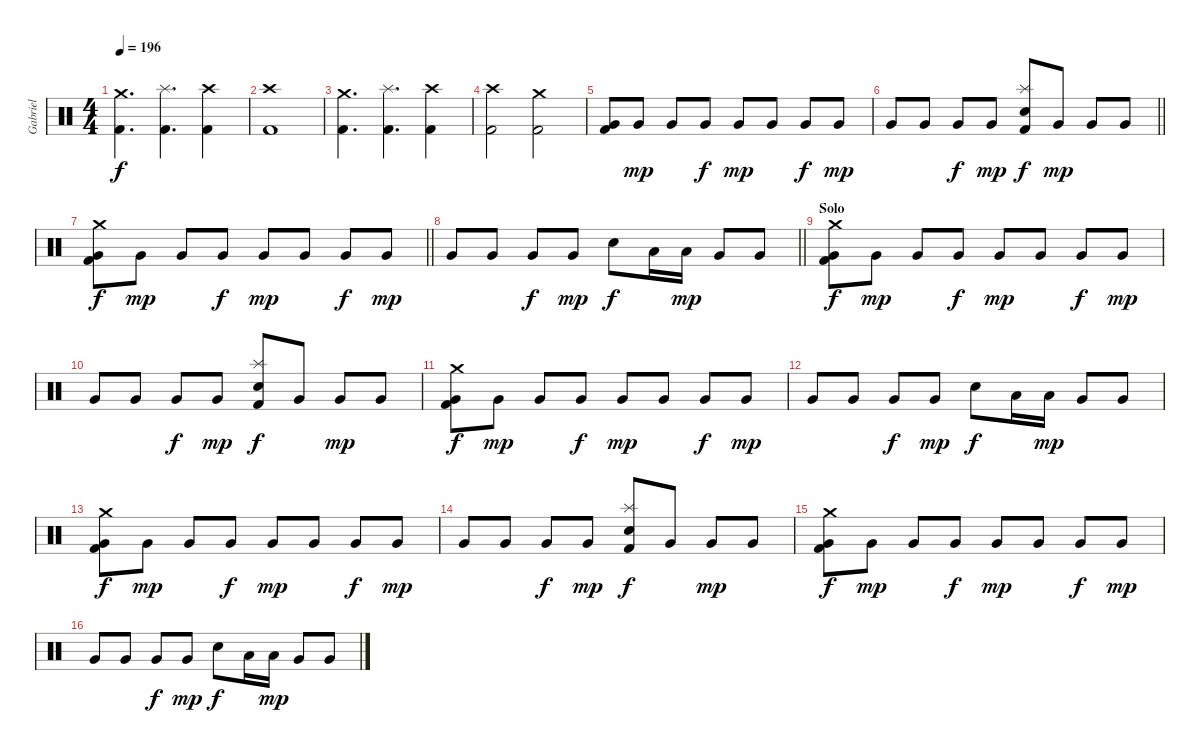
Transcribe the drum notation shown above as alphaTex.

\track ("Gabriel" "Gabriel") {instrument percussion}
\staff {score}
\articulation defaults
\ts (4 4)
\tempo 196
\clef neutral
\ks c
("Crash medium (hit)" "Kick (hit) 2").4{d dy f} ("Splash (hit)" "Kick (hit) 2").4{d} ("Crash high (hit)" "Kick (hit) 2").4 |
("Crash high (hit)" "Kick (hit) 2").1 |
("Crash medium (hit)" "Kick (hit) 2").4{d} ("Splash (hit)" "Kick (hit) 2").4{d} ("Crash high (hit)" "Kick (hit) 2").4 |
("Crash high (hit)" "Kick (hit) 2").2 ("Crash medium (hit)" "Kick (hit) 2").2 |
("Very Low Tom (hit)" "Kick (hit) 2").8 "Very Low Tom (hit)".8{dy mp} "Very Low Tom (hit)".8 "Very Low Tom (hit)".8{dy f} "Very Low Tom (hit)".8{dy mp} "Very Low Tom (hit)".8 "Very Low Tom (hit)".8{dy f} "Very Low Tom (hit)".8{dy mp} |
\barLineRight lightlight "Very Low Tom (hit)".8 "Very Low Tom (hit)".8 "Very Low Tom (hit)".8{dy f} "Very Low Tom (hit)".8{dy mp}
("Splash (hit)" "Electric Snare (hit)" "Kick (hit) 2").8{dy f} "Very Low Tom (hit)".8{dy mp} "Very Low Tom (hit)".8 "Very Low Tom (hit)".8 |
\barLineRight lightlight
("Crash medium (hit)" "Very Low Tom (hit)" "Kick (hit) 2").8{dy f} "Very Low Tom (hit)".8{dy mp} "Very Low Tom (hit)".8 "Very Low Tom (hit)".8{dy f} "Very Low Tom (hit)".8{dy mp} "Very Low Tom (hit)".8 "Very Low Tom (hit)".8{dy f} "Very Low Tom (hit)".8{dy mp} |
\barLineRight lightlight "Very Low Tom (hit)".8 "Very Low Tom (hit)".8 "Very Low Tom (hit)".8{dy f} "Very Low Tom (hit)".8{dy mp} "Electric Snare (hit)".8{dy f} "Low Tom (hit)".16 "Low Tom (hit)".16{dy mp} "Very Low Tom (hit)".8 "Very Low Tom (hit)".8
|
\section ("" "Solo")
("Crash medium (hit)" "Very Low Tom (hit)" "Kick (hit) 2").8{dy f} "Very Low Tom (hit)".8{dy mp} "Very Low Tom (hit)".8 "Very Low Tom (hit)".8{dy f} "Very Low Tom (hit)".8{dy mp} "Very Low Tom (hit)".8 "Very Low Tom (hit)".8{dy f} "Very Low Tom (hit)".8{dy mp} |
"Very Low Tom (hit)".8 "Very Low Tom (hit)".8 "Very Low Tom (hit)".8{dy f} "Very Low Tom (hit)".8{dy mp} ("Splash (hit)" "Electric Snare (hit)" "Kick (hit) 2").8{dy f} "Very Low Tom (hit)".8 "Very Low Tom (hit)".8{dy mp} "Very Low Tom (hit)".8 |
("Crash medium (hit)" "Very Low Tom (hit)" "Kick (hit) 2").8{dy f} "Very Low Tom (hit)".8{dy mp} "Very Low Tom (hit)".8 "Very Low Tom (hit)".8{dy f} "Very Low Tom (hit)".8{dy mp} "Very Low Tom (hit)".8 "Very Low Tom (hit)".8{dy f} "Very Low Tom (hit)".8{dy mp} |
"Very Low Tom (hit)".8 "Very Low Tom (hit)".8 "Very Low Tom (hit)".8{dy f} "Very Low Tom (hit)".8{dy mp} "Electric Snare (hit)".8{dy f} "Low Tom (hit)".16 "Low Tom (hit)".16{dy mp} "Very Low Tom (hit)".8 "Very Low Tom (hit)".8 |
("Crash medium (hit)" "Very Low Tom (hit)" "Kick (hit) 2").8{dy f} "Very Low Tom (hit)".8{dy mp} "Very Low Tom (hit)".8 "Very Low Tom (hit)".8{dy f} "Very Low Tom (hit)".8{dy mp} "Very Low Tom (hit)".8 "Very Low Tom (hit)".8{dy f} "Very Low Tom (hit)".8{dy mp} |
"Very Low Tom (hit)".8 "Very Low Tom (hit)".8 "Very Low Tom (hit)".8{dy f} "Very Low Tom (hit)".8{dy mp} ("Splash (hit)" "Electric Snare (hit)" "Kick (hit) 2").8{dy f} "Very Low Tom (hit)".8 "Very Low Tom (hit)".8{dy mp} "Very Low Tom (hit)".8 |
("Crash medium (hit)" "Very Low Tom (hit)" "Kick (hit) 2").8{dy f} "Very Low Tom (hit)".8{dy mp} "Very Low Tom (hit)".8 "Very Low Tom (hit)".8{dy f} "Very Low Tom (hit)".8{dy mp} "Very Low Tom (hit)".8 "Very Low Tom (hit)".8{dy f} "Very Low Tom (hit)".8{dy mp} |
"Very Low Tom (hit)".8 "Very Low Tom (hit)".8 "Very Low Tom (hit)".8{dy f} "Very Low Tom (hit)".8{dy mp} "Electric Snare (hit)".8{dy f} "Low Tom (hit)".16 "Low Tom (hit)".16{dy mp} "Very Low Tom (hit)".8 "Very Low Tom (hit)".8
